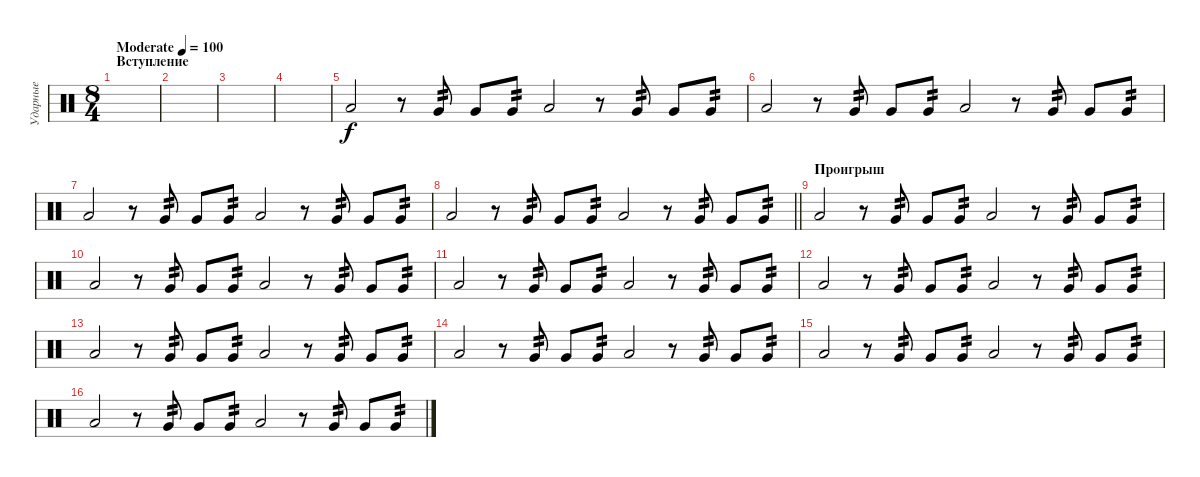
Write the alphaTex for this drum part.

\track ("Ударные" "Ударные") {instrument percussion}
\staff {score}
\articulation defaults
\ts (8 4)
\section ("" "Вступление")
\tempo (100 "Moderate")
\clef neutral
\ks c
|
|
|
|
"Low Floor Tom (hit)".2 r.8 "Very Low Tom (hit)".8{tp 2} "Very Low Tom (hit)".8 "Very Low Tom (hit)".8{tp 2} "Low Floor Tom (hit)".2 r.8 "Very Low Tom (hit)".8{tp 2} "Very Low Tom (hit)".8 "Very Low Tom (hit)".8{tp 2} |
"Low Floor Tom (hit)".2 r.8 "Very Low Tom (hit)".8{tp 2} "Very Low Tom (hit)".8 "Very Low Tom (hit)".8{tp 2} "Low Floor Tom (hit)".2 r.8 "Very Low Tom (hit)".8{tp 2} "Very Low Tom (hit)".8 "Very Low Tom (hit)".8{tp 2} |
"Low Floor Tom (hit)".2 r.8 "Very Low Tom (hit)".8{tp 2} "Very Low Tom (hit)".8 "Very Low Tom (hit)".8{tp 2} "Low Floor Tom (hit)".2 r.8 "Very Low Tom (hit)".8{tp 2} "Very Low Tom (hit)".8 "Very Low Tom (hit)".8{tp 2} |
\barLineRight lightlight "Low Floor Tom (hit)".2
r.8 "Very Low Tom (hit)".8{tp 2} "Very Low Tom (hit)".8 "Very Low Tom (hit)".8{tp 2} "Low Floor Tom (hit)".2 r.8 "Very Low Tom (hit)".8{tp 2} "Very Low Tom (hit)".8 "Very Low Tom (hit)".8{tp 2} |
\section ("" "Проигрыш")
"Low Floor Tom (hit)".2 r.8 "Very Low Tom (hit)".8{tp 2} "Very Low Tom (hit)".8 "Very Low Tom (hit)".8{tp 2} "Low Floor Tom (hit)".2 r.8 "Very Low Tom (hit)".8{tp 2} "Very Low Tom (hit)".8 "Very Low Tom (hit)".8{tp 2} |
"Low Floor Tom (hit)".2 r.8 "Very Low Tom (hit)".8{tp 2} "Very Low Tom (hit)".8 "Very Low Tom (hit)".8{tp 2} "Low Floor Tom (hit)".2 r.8 "Very Low Tom (hit)".8{tp 2} "Very Low Tom (hit)".8 "Very Low Tom (hit)".8{tp 2} |
"Low Floor Tom (hit)".2 r.8 "Very Low Tom (hit)".8{tp 2} "Very Low Tom (hit)".8 "Very Low Tom (hit)".8{tp 2} "Low Floor Tom (hit)".2 r.8 "Very Low Tom (hit)".8{tp 2} "Very Low Tom (hit)".8 "Very Low Tom (hit)".8{tp 2} |
"Low Floor Tom (hit)".2 r.8 "Very Low Tom (hit)".8{tp 2} "Very Low Tom (hit)".8 "Very Low Tom (hit)".8{tp 2} "Low Floor Tom (hit)".2 r.8 "Very Low Tom (hit)".8{tp 2} "Very Low Tom (hit)".8 "Very Low Tom (hit)".8{tp 2} |
"Low Floor Tom (hit)".2 r.8 "Very Low Tom (hit)".8{tp 2} "Very Low Tom (hit)".8 "Very Low Tom (hit)".8{tp 2} "Low Floor Tom (hit)".2 r.8 "Very Low Tom (hit)".8{tp 2} "Very Low Tom (hit)".8 "Very Low Tom (hit)".8{tp 2} |
"Low Floor Tom (hit)".2 r.8 "Very Low Tom (hit)".8{tp 2} "Very Low Tom (hit)".8 "Very Low Tom (hit)".8{tp 2} "Low Floor Tom (hit)".2 r.8 "Very Low Tom (hit)".8{tp 2} "Very Low Tom (hit)".8 "Very Low Tom (hit)".8{tp 2} |
"Low Floor Tom (hit)".2 r.8 "Very Low Tom (hit)".8{tp 2} "Very Low Tom (hit)".8 "Very Low Tom (hit)".8{tp 2} "Low Floor Tom (hit)".2 r.8 "Very Low Tom (hit)".8{tp 2} "Very Low Tom (hit)".8 "Very Low Tom (hit)".8{tp 2} |
"Low Floor Tom (hit)".2 r.8 "Very Low Tom (hit)".8{tp 2} "Very Low Tom (hit)".8 "Very Low Tom (hit)".8{tp 2} "Low Floor Tom (hit)".2 r.8 "Very Low Tom (hit)".8{tp 2} "Very Low Tom (hit)".8 "Very Low Tom (hit)".8{tp 2}
